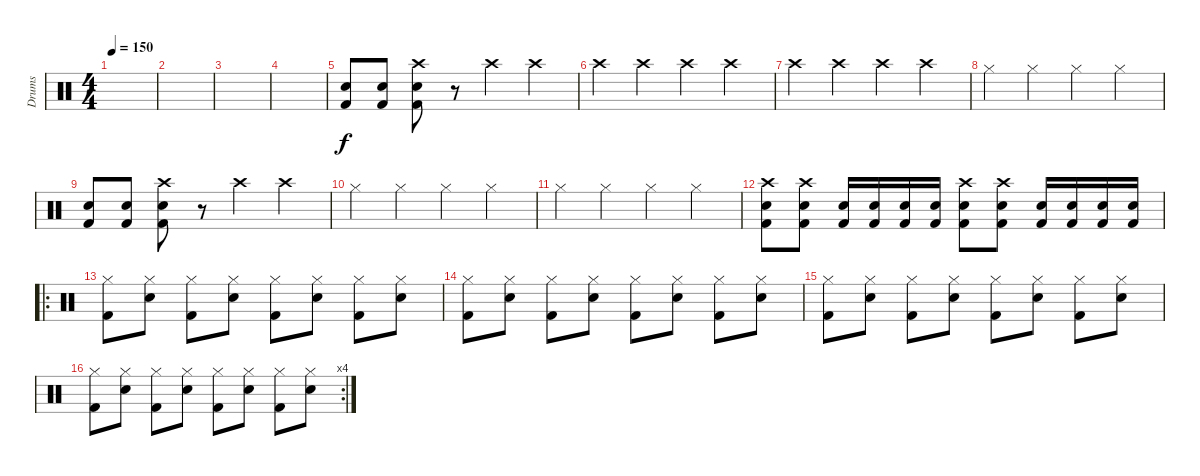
\track ("Drums" "Drums") {instrument percussion}
\staff {score}
\articulation defaults
\ts (4 4)
\tempo 150
\clef neutral
\ks c
|
|
|
|
("Electric Snare (hit)" "Kick (hit) 2").8 ("Electric Snare (hit)" "Kick (hit) 2").8 ("Crash high (hit)" "Electric Snare (hit)" "Kick (hit) 2").8 r.8 "Crash high (hit)".4 "Crash high (hit)".4 |
"Crash high (hit)".4 "Crash high (hit)".4 "Crash high (hit)".4 "Crash high (hit)".4 |
"Crash high (hit)".4 "Crash high (hit)".4 "Crash high (hit)".4 "Crash high (hit)".4 |
"Hi-Hat (closed)".4 "Hi-Hat (closed)".4 "Hi-Hat (closed)".4 "Hi-Hat (closed)".4 |
("Electric Snare (hit)" "Kick (hit) 2").8 ("Electric Snare (hit)" "Kick (hit) 2").8 ("Crash high (hit)" "Electric Snare (hit)" "Kick (hit) 2").8 r.8 "Crash high (hit)".4 "Crash high (hit)".4 |
"Hi-Hat (closed)".4 "Hi-Hat (closed)".4 "Hi-Hat (closed)".4 "Hi-Hat (closed)".4 |
"Hi-Hat (closed)".4 "Hi-Hat (closed)".4 "Hi-Hat (closed)".4 "Hi-Hat (closed)".4 |
("Kick (hit) 2" "Electric Snare (hit)" "Crash high (hit)").8 ("Kick (hit) 2" "Electric Snare (hit)" "Crash high (hit)").8 ("Kick (hit) 2" "Electric Snare (hit)").16 ("Kick (hit) 2" "Electric Snare (hit)").16 ("Kick (hit) 2" "Electric Snare (hit)").16 ("Kick (hit) 2" "Electric Snare (hit)").16 ("Kick (hit) 2" "Electric Snare (hit)" "Crash high (hit)").8 ("Kick (hit) 2" "Electric Snare (hit)" "Crash high (hit)").8 ("Kick (hit) 2" "Electric Snare (hit)").16 ("Kick (hit) 2" "Electric Snare (hit)").16 ("Kick (hit) 2" "Electric Snare (hit)").16 ("Kick (hit) 2" "Electric Snare (hit)").16 |
\ro
("Hi-Hat (closed)" "Kick (hit) 2").8 ("Hi-Hat (closed)" "Electric Snare (hit)").8 ("Hi-Hat (closed)" "Kick (hit) 2").8 ("Hi-Hat (closed)" "Electric Snare (hit)").8 ("Hi-Hat (closed)" "Kick (hit) 2").8 ("Hi-Hat (closed)" "Electric Snare (hit)").8 ("Hi-Hat (closed)" "Kick (hit) 2").8 ("Hi-Hat (closed)" "Electric Snare (hit)").8 |
("Hi-Hat (closed)" "Kick (hit) 2").8 ("Hi-Hat (closed)" "Electric Snare (hit)").8 ("Hi-Hat (closed)" "Kick (hit) 2").8 ("Hi-Hat (closed)" "Electric Snare (hit)").8 ("Hi-Hat (closed)" "Kick (hit) 2").8 ("Hi-Hat (closed)" "Electric Snare (hit)").8 ("Hi-Hat (closed)" "Kick (hit) 2").8 ("Hi-Hat (closed)" "Electric Snare (hit)").8 |
("Hi-Hat (closed)" "Kick (hit) 2").8 ("Hi-Hat (closed)" "Electric Snare (hit)").8 ("Hi-Hat (closed)" "Kick (hit) 2").8 ("Hi-Hat (closed)" "Electric Snare (hit)").8 ("Hi-Hat (closed)" "Kick (hit) 2").8 ("Hi-Hat (closed)" "Electric Snare (hit)").8 ("Hi-Hat (closed)" "Kick (hit) 2").8 ("Hi-Hat (closed)" "Electric Snare (hit)").8 |
\rc 4
("Hi-Hat (closed)" "Kick (hit) 2").8 ("Hi-Hat (closed)" "Electric Snare (hit)").8 ("Hi-Hat (closed)" "Kick (hit) 2").8 ("Hi-Hat (closed)" "Electric Snare (hit)").8 ("Hi-Hat (closed)" "Kick (hit) 2").8 ("Hi-Hat (closed)" "Electric Snare (hit)").8 ("Hi-Hat (closed)" "Kick (hit) 2").8 ("Hi-Hat (closed)" "Electric Snare (hit)").8
